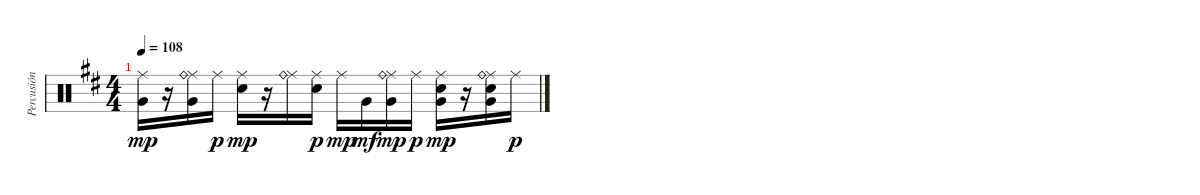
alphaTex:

\track ("Percusión" "Percusión") {instrument percussion}
\staff {score}
\articulation defaults
\ts (4 4)
\tempo 108
\clef neutral
\ks bminor
("Very Low Tom (hit)" "Ride (middle)").16{dy mp} r.16 ("Very Low Tom (hit)" "Ride (middle)" "Ride (bell)").16 "Ride (middle)".16{dy p} ("Electric Snare (hit)" "Ride (middle)").16{dy mp} r.16 ("Ride (middle)" "Ride (bell)").16 ("Electric Snare (hit)" "Ride (middle)").16{dy p} "Ride (middle)".16{dy mp} "Very Low Tom (hit)".16{dy mf} ("Very Low Tom (hit)" "Ride (middle)" "Ride (bell)").16{dy mp} "Ride (middle)".16{dy p} ("Very Low Tom (hit)" "Electric Snare (hit)" "Ride (middle)").16{dy mp} r.16 ("Very Low Tom (hit)" "Electric Snare (hit)" "Ride (middle)" "Ride (bell)").16 "Ride (middle)".16{dy p}
